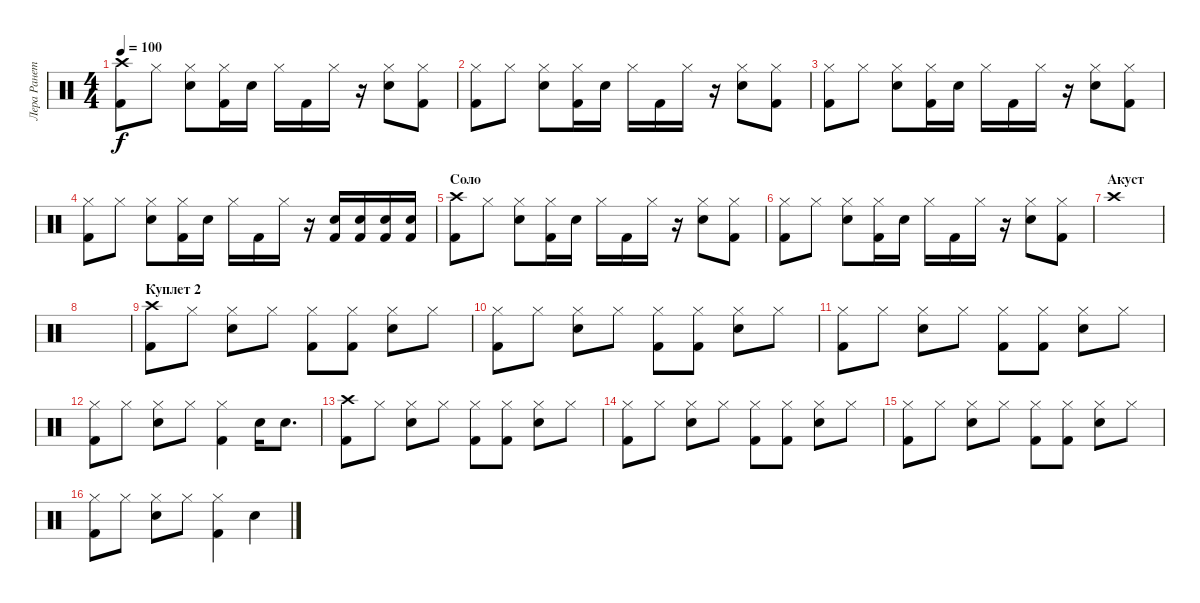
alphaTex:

\track ("Лера Ранетка" "Лера Ранет") {instrument percussion}
\staff {score}
\articulation defaults
\ts (4 4)
\tempo 100
\clef neutral
\ks c
("Crash high (hit)" "Kick (hit) 2").8{dy f} "Hi-Hat (closed)".8 ("Hi-Hat (closed)" "Snare (hit) 2").8 ("Hi-Hat (closed)" "Kick (hit) 2").16 "Snare (hit) 2".16 "Hi-Hat (closed)".16 "Kick (hit) 2".16 "Hi-Hat (closed)".16 r.16 ("Hi-Hat (closed)" "Snare (hit) 2").8 ("Hi-Hat (closed)" "Kick (hit) 2").8 |
("Hi-Hat (closed)" "Kick (hit) 2").8 "Hi-Hat (closed)".8 ("Hi-Hat (closed)" "Snare (hit) 2").8 ("Hi-Hat (closed)" "Kick (hit) 2").16 "Snare (hit) 2".16 "Hi-Hat (closed)".16 "Kick (hit) 2".16 "Hi-Hat (closed)".16 r.16 ("Hi-Hat (closed)" "Snare (hit) 2").8 ("Hi-Hat (closed)" "Kick (hit) 2").8 |
("Hi-Hat (closed)" "Kick (hit) 2").8 "Hi-Hat (closed)".8 ("Hi-Hat (closed)" "Snare (hit) 2").8 ("Hi-Hat (closed)" "Kick (hit) 2").16 "Snare (hit) 2".16 "Hi-Hat (closed)".16 "Kick (hit) 2".16 "Hi-Hat (closed)".16 r.16 ("Hi-Hat (closed)" "Snare (hit) 2").8 ("Hi-Hat (closed)" "Kick (hit) 2").8 |
("Hi-Hat (closed)" "Kick (hit) 2").8 "Hi-Hat (closed)".8 ("Hi-Hat (closed)" "Snare (hit) 2").8 ("Hi-Hat (closed)" "Kick (hit) 2").16 "Snare (hit) 2".16 "Hi-Hat (closed)".16 "Kick (hit) 2".16 "Hi-Hat (closed)".16 r.16 ("Snare (hit) 2" "Kick (hit) 2").16 ("Snare (hit) 2" "Kick (hit) 2").16 ("Snare (hit) 2" "Kick (hit) 2").16 ("Snare (hit) 2" "Kick (hit) 2").16 |
\section ("" "Соло")
("Crash high (hit)" "Kick (hit) 2").8 "Hi-Hat (closed)".8 ("Hi-Hat (closed)" "Snare (hit) 2").8 ("Hi-Hat (closed)" "Kick (hit) 2").16 "Snare (hit) 2".16 "Hi-Hat (closed)".16 "Kick (hit) 2".16 "Hi-Hat (closed)".16 r.16 ("Hi-Hat (closed)" "Snare (hit) 2").8 ("Hi-Hat (closed)" "Kick (hit) 2").8 |
("Hi-Hat (closed)" "Kick (hit) 2").8 "Hi-Hat (closed)".8 ("Hi-Hat (closed)" "Snare (hit) 2").8 ("Hi-Hat (closed)" "Kick (hit) 2").16 "Snare (hit) 2".16 "Hi-Hat (closed)".16 "Kick (hit) 2".16 "Hi-Hat (closed)".16 r.16 ("Hi-Hat (closed)" "Snare (hit) 2").8 ("Hi-Hat (closed)" "Kick (hit) 2").8 |
\section ("" "Акуст")
"Crash high (hit)".1 |
|
\section ("" "Куплет 2")
("Crash high (hit)" "Kick (hit) 2").8 "Hi-Hat (closed)".8 ("Hi-Hat (closed)" "Snare (hit) 2").8 "Hi-Hat (closed)".8 ("Hi-Hat (closed)" "Kick (hit) 2").8 ("Hi-Hat (closed)" "Kick (hit) 2").8 ("Hi-Hat (closed)" "Snare (hit) 2").8 "Hi-Hat (closed)".8 |
("Hi-Hat (closed)" "Kick (hit) 2").8 "Hi-Hat (closed)".8 ("Hi-Hat (closed)" "Snare (hit) 2").8 "Hi-Hat (closed)".8 ("Hi-Hat (closed)" "Kick (hit) 2").8 ("Hi-Hat (closed)" "Kick (hit) 2").8 ("Hi-Hat (closed)" "Snare (hit) 2").8 "Hi-Hat (closed)".8 |
("Hi-Hat (closed)" "Kick (hit) 2").8 "Hi-Hat (closed)".8 ("Hi-Hat (closed)" "Snare (hit) 2").8 "Hi-Hat (closed)".8 ("Hi-Hat (closed)" "Kick (hit) 2").8 ("Hi-Hat (closed)" "Kick (hit) 2").8 ("Hi-Hat (closed)" "Snare (hit) 2").8 "Hi-Hat (closed)".8 |
("Hi-Hat (closed)" "Kick (hit) 2").8 "Hi-Hat (closed)".8 ("Hi-Hat (closed)" "Snare (hit) 2").8 "Hi-Hat (closed)".8 ("Hi-Hat (closed)" "Kick (hit) 2").4 "Snare (hit) 2".16 "Snare (hit) 2".8{d} |
("Crash high (hit)" "Kick (hit) 2").8 "Hi-Hat (closed)".8 ("Hi-Hat (closed)" "Snare (hit) 2").8 "Hi-Hat (closed)".8 ("Hi-Hat (closed)" "Kick (hit) 2").8 ("Hi-Hat (closed)" "Kick (hit) 2").8 ("Hi-Hat (closed)" "Snare (hit) 2").8 "Hi-Hat (closed)".8 |
("Hi-Hat (closed)" "Kick (hit) 2").8 "Hi-Hat (closed)".8 ("Hi-Hat (closed)" "Snare (hit) 2").8 "Hi-Hat (closed)".8 ("Hi-Hat (closed)" "Kick (hit) 2").8 ("Hi-Hat (closed)" "Kick (hit) 2").8 ("Hi-Hat (closed)" "Snare (hit) 2").8 "Hi-Hat (closed)".8 |
("Hi-Hat (closed)" "Kick (hit) 2").8 "Hi-Hat (closed)".8 ("Hi-Hat (closed)" "Snare (hit) 2").8 "Hi-Hat (closed)".8 ("Hi-Hat (closed)" "Kick (hit) 2").8 ("Hi-Hat (closed)" "Kick (hit) 2").8 ("Hi-Hat (closed)" "Snare (hit) 2").8 "Hi-Hat (closed)".8 |
("Hi-Hat (closed)" "Kick (hit) 2").8 "Hi-Hat (closed)".8 ("Hi-Hat (closed)" "Snare (hit) 2").8 "Hi-Hat (closed)".8 ("Hi-Hat (closed)" "Kick (hit) 2").4 "Snare (hit) 2".4
